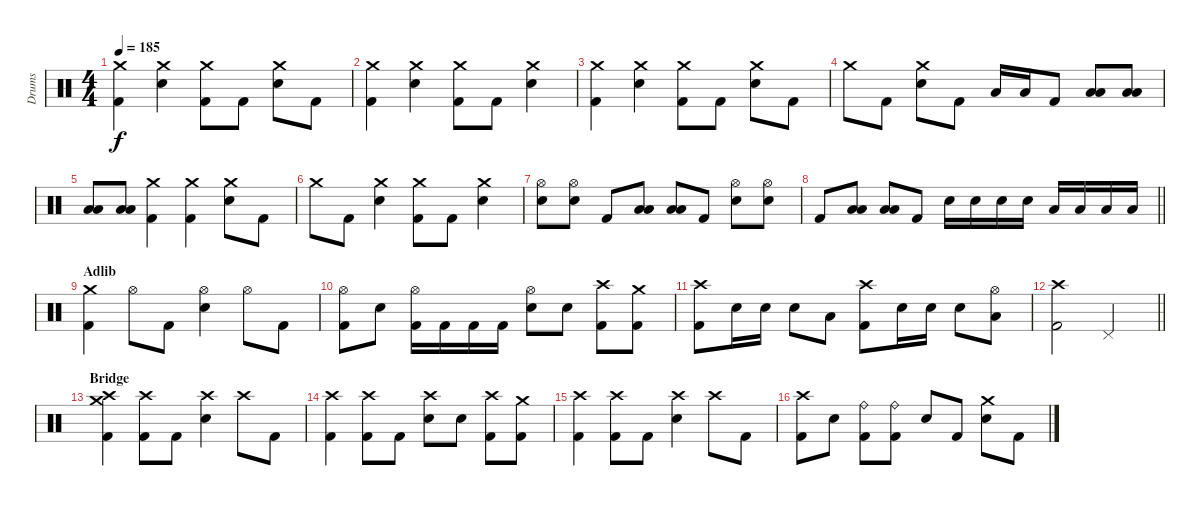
\track ("Drums" "Drums") {instrument percussion}
\staff {score}
\articulation defaults
\ts (4 4)
\tempo 185
\clef neutral
\ks c
("Crash medium (hit)" "Kick (hit) 2").4{dy f} ("Crash medium (hit)" "Electric Snare (hit)").4 ("Crash medium (hit)" "Kick (hit) 2").8 "Kick (hit) 2".8 ("Crash medium (hit)" "Electric Snare (hit)").8 "Kick (hit) 2".8 |
("Crash medium (hit)" "Kick (hit) 2").4 ("Crash medium (hit)" "Electric Snare (hit)").4 ("Crash medium (hit)" "Kick (hit) 2").8 "Kick (hit) 2".8 ("Crash medium (hit)" "Electric Snare (hit)").4 |
("Crash medium (hit)" "Kick (hit) 2").4 ("Crash medium (hit)" "Electric Snare (hit)").4 ("Crash medium (hit)" "Kick (hit) 2").8 "Kick (hit) 2".8 ("Crash medium (hit)" "Electric Snare (hit)").8 "Kick (hit) 2".8 |
"Crash medium (hit)".8 "Kick (hit) 2".8 ("Crash medium (hit)" "Electric Snare (hit)").8 "Kick (hit) 2".8 "Low Tom (hit)".16 "Low Tom (hit)".16 "Kick (hit) 2".8 ("Low Tom (hit)" "Low Floor Tom (hit)").8 ("Low Tom (hit)" "Low Floor Tom (hit)").8 |
("Low Tom (hit)" "Low Floor Tom (hit)").8 ("Low Tom (hit)" "Low Floor Tom (hit)").8 ("Crash medium (hit)" "Kick (hit) 2").4 ("Crash medium (hit)" "Kick (hit) 2").4 ("Crash medium (hit)" "Electric Snare (hit)").8 "Kick (hit) 2".8 |
"Crash medium (hit)".8 "Kick (hit) 2".8 ("Crash medium (hit)" "Electric Snare (hit)").4 ("Crash medium (hit)" "Kick (hit) 2").8 "Kick (hit) 2".8 ("Crash medium (hit)" "Electric Snare (hit)").4 |
("Hi-Hat (open)" "Electric Snare (hit)").8 ("Hi-Hat (open)" "Electric Snare (hit)").8 "Kick (hit) 2".8 ("Low Tom (hit)" "Low Floor Tom (hit)").8 ("Low Tom (hit)" "Low Floor Tom (hit)").8 "Kick (hit) 2".8 ("Hi-Hat (open)" "Electric Snare (hit)").8 ("Hi-Hat (open)" "Electric Snare (hit)").8 |
\barLineRight lightlight "Kick (hit) 2".8
("Low Tom (hit)" "Low Floor Tom (hit)").8 ("Low Tom (hit)" "Low Floor Tom (hit)").8 "Kick (hit) 2".8 "Electric Snare (hit)".16 "Electric Snare (hit)".16 "Electric Snare (hit)".16 "Electric Snare (hit)".16 "Low Tom (hit)".16 "Low Tom (hit)".16 "Low Floor Tom (hit)".16 "Low Floor Tom (hit)".16 |
\section ("" "Adlib")
("Crash medium (hit)" "Kick (hit) 2").4 "Hi-Hat (open)".8 "Kick (hit) 2".8 ("Hi-Hat (open)" "Electric Snare (hit)").4 "Hi-Hat (open)".8 "Kick (hit) 2".8 |
("Hi-Hat (open)" "Kick (hit) 2").8 "Electric Snare (hit)".8 ("Hi-Hat (open)" "Kick (hit) 2").16 "Kick (hit) 2".16 "Kick (hit) 2".16 "Kick (hit) 2".16 ("Hi-Hat (open)" "Electric Snare (hit)").8 "Electric Snare (hit)".8 ("Crash high (hit)" "Kick (hit) 2").8 ("Crash medium (hit)" "Kick (hit) 2").8 |
("Crash high (hit)" "Kick (hit) 2").8 "Electric Snare (hit)".16 "Electric Snare (hit)".16 "Electric Snare (hit)".8 "Low Tom (hit)".8 ("Crash high (hit)" "Kick (hit) 2").8 "Electric Snare (hit)".16 "Electric Snare (hit)".16 "Electric Snare (hit)".8 ("Hi-Hat (open)" "Low Floor Tom (hit)").8 |
\barLineRight lightlight
("Crash high (hit)" "Kick (hit) 2").2 "Pedal Hi-Hat (hit)".2 |
\section ("" "Bridge")
("Crash medium (hit)" "Crash high (hit)" "Kick (hit) 2").4 ("Crash high (hit)" "Kick (hit) 2").8 "Kick (hit) 2".8 ("Crash high (hit)" "Electric Snare (hit)").4 "Crash high (hit)".8 "Kick (hit) 2".8 |
("Crash high (hit)" "Kick (hit) 2").4 ("Crash high (hit)" "Kick (hit) 2").8 "Kick (hit) 2".8 ("Crash high (hit)" "Electric Snare (hit)").8 "Electric Snare (hit)".8 ("Crash high (hit)" "Kick (hit) 2").8 ("Crash medium (hit)" "Kick (hit) 2").8 |
("Crash high (hit)" "Kick (hit) 2").4 ("Crash high (hit)" "Kick (hit) 2").8 "Kick (hit) 2".8 ("Crash high (hit)" "Electric Snare (hit)").4 "Crash high (hit)".8 "Kick (hit) 2".8 |
("Crash high (hit)" "Kick (hit) 2").8 "Electric Snare (hit)".8 ("Ride (bell)" "Kick (hit) 2").8 ("Ride (bell)" "Kick (hit) 2").8 "Electric Snare (hit)".8 "Kick (hit) 2".8 ("Crash medium (hit)" "Electric Snare (hit)").8 "Kick (hit) 2".8
